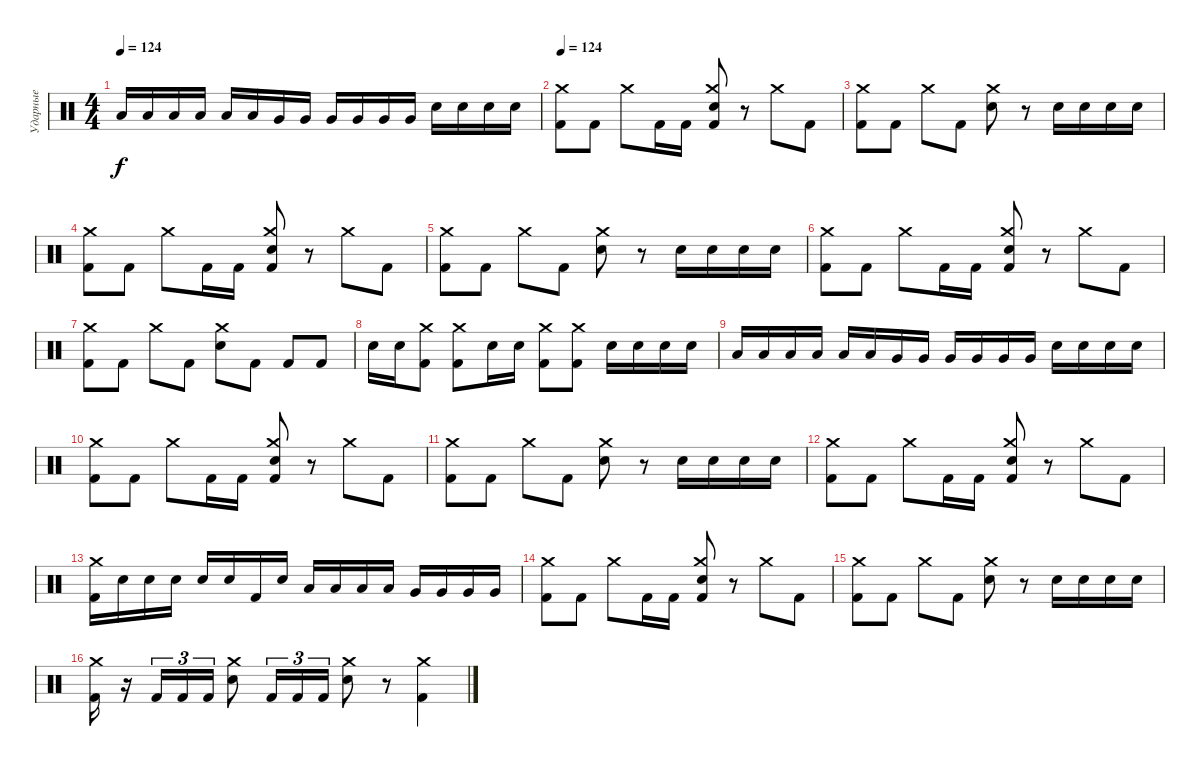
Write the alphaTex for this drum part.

\track ("Ударные" "Ударные") {instrument percussion}
\staff {score}
\articulation defaults
\ts (4 4)
\tempo 124
\clef neutral
\ks c "Low Tom (hit)".16{dy f} "Low Tom (hit)".16 "Low Tom (hit)".16 "Low Tom (hit)".16 "Low Tom (hit)".16 "Low Tom (hit)".16 "Very Low Tom (hit)".16 "Very Low Tom (hit)".16 "Very Low Tom (hit)".16 "Very Low Tom (hit)".16 "Very Low Tom (hit)".16 "Very Low Tom (hit)".16 "Snare (hit) 2".16 "Snare (hit) 2".16 "Snare (hit) 2".16 "Snare (hit) 2".16
|
\tempo 124
("Crash medium (hit)" "Kick (hit) 2").8 "Kick (hit) 2".8 "Crash medium (hit)".8 "Kick (hit) 2".16 "Kick (hit) 2".16 ("Crash medium (hit)" "Snare (hit) 2" "Kick (hit) 2").8 r.8 "Crash medium (hit)".8 "Kick (hit) 2".8 |
("Crash medium (hit)" "Kick (hit) 2").8 "Kick (hit) 2".8 "Crash medium (hit)".8 "Kick (hit) 2".8 ("Crash medium (hit)" "Snare (hit) 2").8 r.8 "Snare (hit) 2".16 "Snare (hit) 2".16 "Snare (hit) 2".16 "Snare (hit) 2".16 |
("Crash medium (hit)" "Kick (hit) 2").8 "Kick (hit) 2".8 "Crash medium (hit)".8 "Kick (hit) 2".16 "Kick (hit) 2".16 ("Crash medium (hit)" "Snare (hit) 2" "Kick (hit) 2").8 r.8 "Crash medium (hit)".8 "Kick (hit) 2".8 |
("Crash medium (hit)" "Kick (hit) 2").8 "Kick (hit) 2".8 "Crash medium (hit)".8 "Kick (hit) 2".8 ("Crash medium (hit)" "Snare (hit) 2").8 r.8 "Snare (hit) 2".16 "Snare (hit) 2".16 "Snare (hit) 2".16 "Snare (hit) 2".16 |
("Crash medium (hit)" "Kick (hit) 2").8 "Kick (hit) 2".8 "Crash medium (hit)".8 "Kick (hit) 2".16 "Kick (hit) 2".16 ("Crash medium (hit)" "Snare (hit) 2" "Kick (hit) 2").8 r.8 "Crash medium (hit)".8 "Kick (hit) 2".8 |
("Crash medium (hit)" "Kick (hit) 2").8 "Kick (hit) 2".8 "Crash medium (hit)".8 "Kick (hit) 2".8 ("Crash medium (hit)" "Snare (hit) 2").8 "Kick (hit) 2".8 "Kick (hit) 2".8 "Kick (hit) 2".8 |
"Snare (hit) 2".16 "Snare (hit) 2".16 ("Crash medium (hit)" "Kick (hit) 2").8 ("Crash medium (hit)" "Kick (hit) 2").8 "Snare (hit) 2".16 "Snare (hit) 2".16 ("Crash medium (hit)" "Kick (hit) 2").8 ("Crash medium (hit)" "Kick (hit) 2").8 "Snare (hit) 2".16 "Snare (hit) 2".16 "Snare (hit) 2".16 "Snare (hit) 2".16 |
"Low Tom (hit)".16 "Low Tom (hit)".16 "Low Tom (hit)".16 "Low Tom (hit)".16 "Low Tom (hit)".16 "Low Tom (hit)".16 "Very Low Tom (hit)".16 "Very Low Tom (hit)".16 "Very Low Tom (hit)".16 "Very Low Tom (hit)".16 "Very Low Tom (hit)".16 "Very Low Tom (hit)".16 "Snare (hit) 2".16 "Snare (hit) 2".16 "Snare (hit) 2".16 "Snare (hit) 2".16 |
("Crash medium (hit)" "Kick (hit) 2").8 "Kick (hit) 2".8 "Crash medium (hit)".8 "Kick (hit) 2".16 "Kick (hit) 2".16 ("Crash medium (hit)" "Snare (hit) 2" "Kick (hit) 2").8 r.8 "Crash medium (hit)".8 "Kick (hit) 2".8 |
("Crash medium (hit)" "Kick (hit) 2").8 "Kick (hit) 2".8 "Crash medium (hit)".8 "Kick (hit) 2".8 ("Crash medium (hit)" "Snare (hit) 2").8 r.8 "Snare (hit) 2".16 "Snare (hit) 2".16 "Snare (hit) 2".16 "Snare (hit) 2".16 |
("Crash medium (hit)" "Kick (hit) 2").8 "Kick (hit) 2".8 "Crash medium (hit)".8 "Kick (hit) 2".16 "Kick (hit) 2".16 ("Crash medium (hit)" "Snare (hit) 2" "Kick (hit) 2").8 r.8 "Crash medium (hit)".8 "Kick (hit) 2".8 |
("Crash medium (hit)" "Kick (hit) 2").16 "Snare (hit) 2".16 "Snare (hit) 2".16 "Snare (hit) 2".16 "Snare (hit) 2".16 "Snare (hit) 2".16 "Kick (hit) 2".16 "Snare (hit) 2".16 "Low Tom (hit)".16 "Low Tom (hit)".16 "Low Tom (hit)".16 "Low Tom (hit)".16 "Very Low Tom (hit)".16 "Very Low Tom (hit)".16 "Very Low Tom (hit)".16 "Very Low Tom (hit)".16 |
("Crash medium (hit)" "Kick (hit) 2").8 "Kick (hit) 2".8 "Crash medium (hit)".8 "Kick (hit) 2".16 "Kick (hit) 2".16 ("Crash medium (hit)" "Snare (hit) 2" "Kick (hit) 2").8 r.8 "Crash medium (hit)".8 "Kick (hit) 2".8 |
("Crash medium (hit)" "Kick (hit) 2").8 "Kick (hit) 2".8 "Crash medium (hit)".8 "Kick (hit) 2".8 ("Crash medium (hit)" "Snare (hit) 2").8 r.8 "Snare (hit) 2".16 "Snare (hit) 2".16 "Snare (hit) 2".16 "Snare (hit) 2".16 |
("Crash medium (hit)" "Kick (hit) 2").16 r.16 "Kick (hit) 2".16{tu (3 2)} "Kick (hit) 2".16{tu (3 2)} "Kick (hit) 2".16{tu (3 2)} ("Crash medium (hit)" "Snare (hit) 2").8 "Kick (hit) 2".16{tu (3 2)} "Kick (hit) 2".16{tu (3 2)} "Kick (hit) 2".16{tu (3 2)} ("Crash medium (hit)" "Snare (hit) 2").8 r.8 ("Crash medium (hit)" "Kick (hit) 2").4
